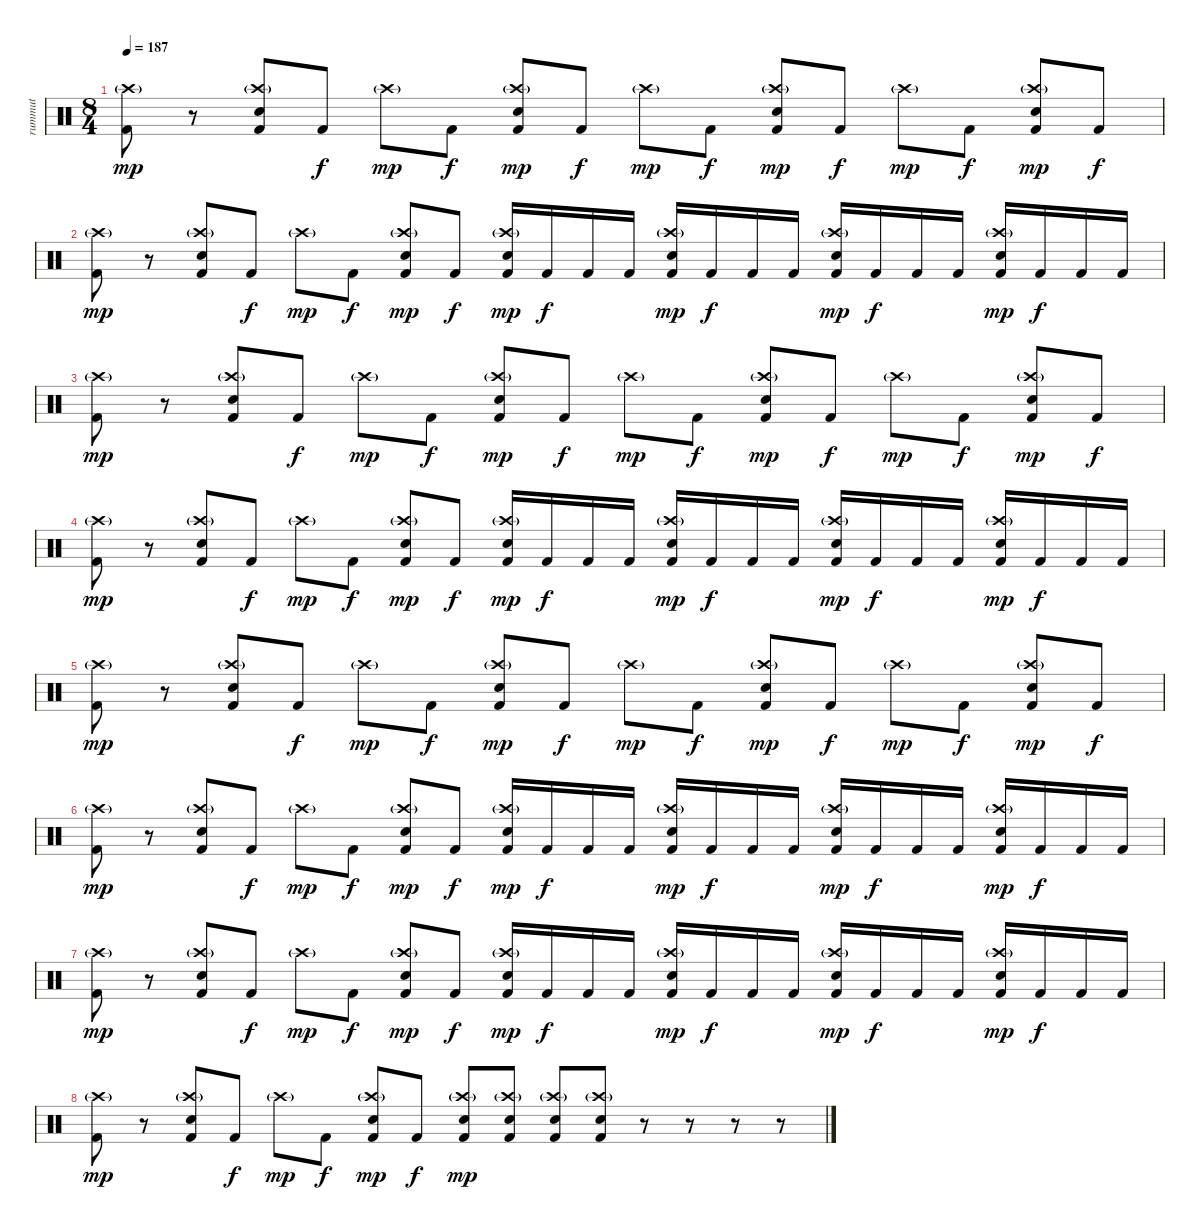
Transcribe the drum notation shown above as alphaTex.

\track ("rummut" "rummut") {instrument percussion}
\staff {score}
\articulation defaults
\ts (8 4)
\tempo 187
\clef neutral
\ks c
("Kick (hit) 2" "Crash high (hit)"{g}).8{dy mp} r.8 ("Kick (hit) 2" "Crash high (hit)"{g} "Snare (hit) 2").8 "Kick (hit) 2".8{dy f} "Crash high (hit)"{g}.8{dy mp} "Kick (hit) 2".8{dy f} ("Kick (hit) 2" "Crash high (hit)"{g} "Snare (hit) 2").8{dy mp} "Kick (hit) 2".8{dy f} "Crash high (hit)"{g}.8{dy mp} "Kick (hit) 2".8{dy f} ("Kick (hit) 2" "Crash high (hit)"{g} "Snare (hit) 2").8{dy mp} "Kick (hit) 2".8{dy f} "Crash high (hit)"{g}.8{dy mp} "Kick (hit) 2".8{dy f} ("Kick (hit) 2" "Crash high (hit)"{g} "Snare (hit) 2").8{dy mp} "Kick (hit) 2".8{dy f} |
("Kick (hit) 2" "Crash high (hit)"{g}).8{dy mp} r.8 ("Kick (hit) 2" "Crash high (hit)"{g} "Snare (hit) 2").8 "Kick (hit) 2".8{dy f} "Crash high (hit)"{g}.8{dy mp} "Kick (hit) 2".8{dy f} ("Kick (hit) 2" "Crash high (hit)"{g} "Snare (hit) 2").8{dy mp} "Kick (hit) 2".8{dy f} ("Kick (hit) 2" "Crash high (hit)"{g} "Snare (hit) 2").16{dy mp} "Kick (hit) 2".16{dy f} "Kick (hit) 2".16 "Kick (hit) 2".16 ("Kick (hit) 2" "Crash high (hit)"{g} "Snare (hit) 2").16{dy mp} "Kick (hit) 2".16{dy f} "Kick (hit) 2".16 "Kick (hit) 2".16 ("Kick (hit) 2" "Crash high (hit)"{g} "Snare (hit) 2").16{dy mp} "Kick (hit) 2".16{dy f} "Kick (hit) 2".16 "Kick (hit) 2".16 ("Kick (hit) 2" "Crash high (hit)"{g} "Snare (hit) 2").16{dy mp} "Kick (hit) 2".16{dy f} "Kick (hit) 2".16 "Kick (hit) 2".16 |
("Kick (hit) 2" "Crash high (hit)"{g}).8{dy mp} r.8 ("Kick (hit) 2" "Crash high (hit)"{g} "Snare (hit) 2").8 "Kick (hit) 2".8{dy f} "Crash high (hit)"{g}.8{dy mp} "Kick (hit) 2".8{dy f} ("Kick (hit) 2" "Crash high (hit)"{g} "Snare (hit) 2").8{dy mp} "Kick (hit) 2".8{dy f} "Crash high (hit)"{g}.8{dy mp} "Kick (hit) 2".8{dy f} ("Kick (hit) 2" "Crash high (hit)"{g} "Snare (hit) 2").8{dy mp} "Kick (hit) 2".8{dy f} "Crash high (hit)"{g}.8{dy mp} "Kick (hit) 2".8{dy f} ("Kick (hit) 2" "Crash high (hit)"{g} "Snare (hit) 2").8{dy mp} "Kick (hit) 2".8{dy f} |
("Kick (hit) 2" "Crash high (hit)"{g}).8{dy mp} r.8 ("Kick (hit) 2" "Crash high (hit)"{g} "Snare (hit) 2").8 "Kick (hit) 2".8{dy f} "Crash high (hit)"{g}.8{dy mp} "Kick (hit) 2".8{dy f} ("Kick (hit) 2" "Crash high (hit)"{g} "Snare (hit) 2").8{dy mp} "Kick (hit) 2".8{dy f} ("Kick (hit) 2" "Crash high (hit)"{g} "Snare (hit) 2").16{dy mp} "Kick (hit) 2".16{dy f} "Kick (hit) 2".16 "Kick (hit) 2".16 ("Kick (hit) 2" "Crash high (hit)"{g} "Snare (hit) 2").16{dy mp} "Kick (hit) 2".16{dy f} "Kick (hit) 2".16 "Kick (hit) 2".16 ("Kick (hit) 2" "Crash high (hit)"{g} "Snare (hit) 2").16{dy mp} "Kick (hit) 2".16{dy f} "Kick (hit) 2".16 "Kick (hit) 2".16 ("Kick (hit) 2" "Crash high (hit)"{g} "Snare (hit) 2").16{dy mp} "Kick (hit) 2".16{dy f} "Kick (hit) 2".16 "Kick (hit) 2".16 |
("Kick (hit) 2" "Crash high (hit)"{g}).8{dy mp} r.8 ("Kick (hit) 2" "Crash high (hit)"{g} "Snare (hit) 2").8 "Kick (hit) 2".8{dy f} "Crash high (hit)"{g}.8{dy mp} "Kick (hit) 2".8{dy f} ("Kick (hit) 2" "Crash high (hit)"{g} "Snare (hit) 2").8{dy mp} "Kick (hit) 2".8{dy f} "Crash high (hit)"{g}.8{dy mp} "Kick (hit) 2".8{dy f} ("Kick (hit) 2" "Crash high (hit)"{g} "Snare (hit) 2").8{dy mp} "Kick (hit) 2".8{dy f} "Crash high (hit)"{g}.8{dy mp} "Kick (hit) 2".8{dy f} ("Kick (hit) 2" "Crash high (hit)"{g} "Snare (hit) 2").8{dy mp} "Kick (hit) 2".8{dy f} |
("Kick (hit) 2" "Crash high (hit)"{g}).8{dy mp} r.8 ("Kick (hit) 2" "Crash high (hit)"{g} "Snare (hit) 2").8 "Kick (hit) 2".8{dy f} "Crash high (hit)"{g}.8{dy mp} "Kick (hit) 2".8{dy f} ("Kick (hit) 2" "Crash high (hit)"{g} "Snare (hit) 2").8{dy mp} "Kick (hit) 2".8{dy f} ("Kick (hit) 2" "Crash high (hit)"{g} "Snare (hit) 2").16{dy mp} "Kick (hit) 2".16{dy f} "Kick (hit) 2".16 "Kick (hit) 2".16 ("Kick (hit) 2" "Crash high (hit)"{g} "Snare (hit) 2").16{dy mp} "Kick (hit) 2".16{dy f} "Kick (hit) 2".16 "Kick (hit) 2".16 ("Kick (hit) 2" "Crash high (hit)"{g} "Snare (hit) 2").16{dy mp} "Kick (hit) 2".16{dy f} "Kick (hit) 2".16 "Kick (hit) 2".16 ("Kick (hit) 2" "Crash high (hit)"{g} "Snare (hit) 2").16{dy mp} "Kick (hit) 2".16{dy f} "Kick (hit) 2".16 "Kick (hit) 2".16 |
("Kick (hit) 2" "Crash high (hit)"{g}).8{dy mp} r.8 ("Kick (hit) 2" "Crash high (hit)"{g} "Snare (hit) 2").8 "Kick (hit) 2".8{dy f} "Crash high (hit)"{g}.8{dy mp} "Kick (hit) 2".8{dy f} ("Kick (hit) 2" "Crash high (hit)"{g} "Snare (hit) 2").8{dy mp} "Kick (hit) 2".8{dy f} ("Kick (hit) 2" "Crash high (hit)"{g} "Snare (hit) 2").16{dy mp} "Kick (hit) 2".16{dy f} "Kick (hit) 2".16 "Kick (hit) 2".16 ("Kick (hit) 2" "Crash high (hit)"{g} "Snare (hit) 2").16{dy mp} "Kick (hit) 2".16{dy f} "Kick (hit) 2".16 "Kick (hit) 2".16 ("Kick (hit) 2" "Crash high (hit)"{g} "Snare (hit) 2").16{dy mp} "Kick (hit) 2".16{dy f} "Kick (hit) 2".16 "Kick (hit) 2".16 ("Kick (hit) 2" "Crash high (hit)"{g} "Snare (hit) 2").16{dy mp} "Kick (hit) 2".16{dy f} "Kick (hit) 2".16 "Kick (hit) 2".16 |
("Kick (hit) 2" "Crash high (hit)"{g}).8{dy mp} r.8 ("Kick (hit) 2" "Crash high (hit)"{g} "Snare (hit) 2").8 "Kick (hit) 2".8{dy f} "Crash high (hit)"{g}.8{dy mp} "Kick (hit) 2".8{dy f} ("Kick (hit) 2" "Crash high (hit)"{g} "Snare (hit) 2").8{dy mp} "Kick (hit) 2".8{dy f} ("Kick (hit) 2" "Crash high (hit)"{g} "Snare (hit) 2").8{dy mp} ("Kick (hit) 2" "Crash high (hit)"{g} "Snare (hit) 2").8 ("Kick (hit) 2" "Crash high (hit)"{g} "Snare (hit) 2").8 ("Kick (hit) 2" "Crash high (hit)"{g} "Snare (hit) 2").8 r.8 r.8 r.8 r.8
